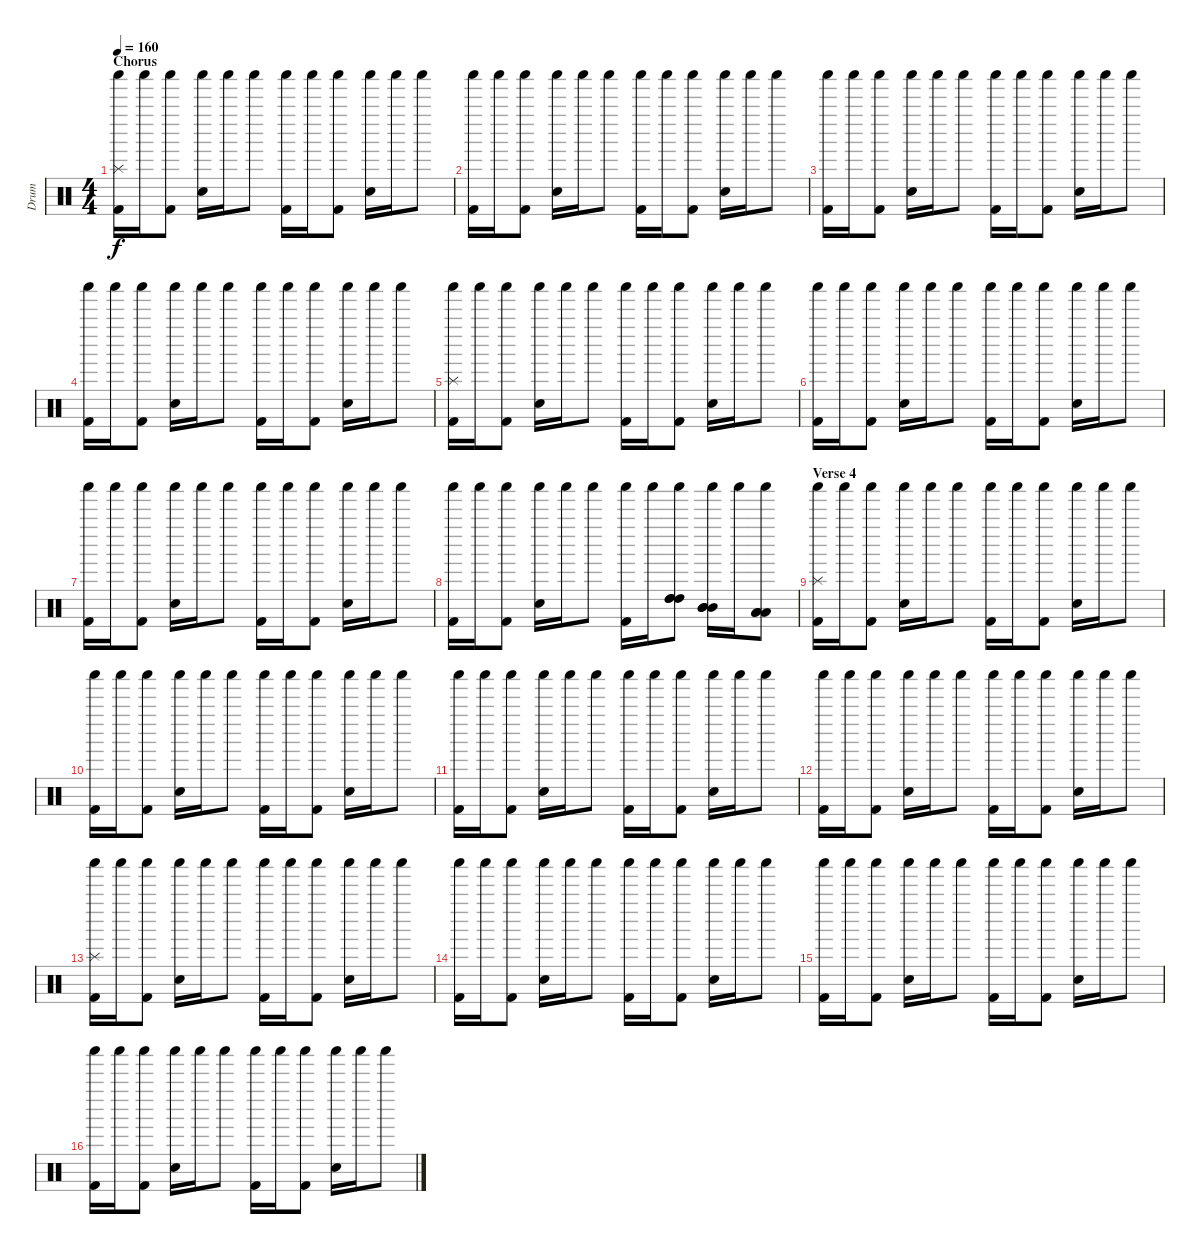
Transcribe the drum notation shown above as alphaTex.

\track ("Drum" "Drum") {instrument percussion}
\staff {score}
\articulation defaults
\ts (4 4)
\section ("" "Chorus")
\tempo 160
\clef neutral
\ks c
("Splash (hit)" "Shaker (hit)" "Kick (hit) 2").16{dy f} "Shaker (hit)".16 ("Shaker (hit)" "Kick (hit) 2").8 ("Shaker (hit)" "Snare (hit) 2").16 "Shaker (hit)".16 "Shaker (hit)".8 ("Shaker (hit)" "Kick (hit) 2").16 "Shaker (hit)".16 ("Shaker (hit)" "Kick (hit) 2").8 ("Shaker (hit)" "Snare (hit) 2").16 "Shaker (hit)".16 "Shaker (hit)".8 |
("Shaker (hit)" "Kick (hit) 2").16 "Shaker (hit)".16 ("Shaker (hit)" "Kick (hit) 2").8 ("Shaker (hit)" "Snare (hit) 2").16 "Shaker (hit)".16 "Shaker (hit)".8 ("Shaker (hit)" "Kick (hit) 2").16 "Shaker (hit)".16 ("Shaker (hit)" "Kick (hit) 2").8 ("Shaker (hit)" "Snare (hit) 2").16 "Shaker (hit)".16 "Shaker (hit)".8 |
("Shaker (hit)" "Kick (hit) 2").16 "Shaker (hit)".16 ("Shaker (hit)" "Kick (hit) 2").8 ("Shaker (hit)" "Snare (hit) 2").16 "Shaker (hit)".16 "Shaker (hit)".8 ("Shaker (hit)" "Kick (hit) 2").16 "Shaker (hit)".16 ("Shaker (hit)" "Kick (hit) 2").8 ("Shaker (hit)" "Snare (hit) 2").16 "Shaker (hit)".16 "Shaker (hit)".8 |
("Shaker (hit)" "Kick (hit) 2").16 "Shaker (hit)".16 ("Shaker (hit)" "Kick (hit) 2").8 ("Shaker (hit)" "Snare (hit) 2").16 "Shaker (hit)".16 "Shaker (hit)".8 ("Shaker (hit)" "Kick (hit) 2").16 "Shaker (hit)".16 ("Shaker (hit)" "Kick (hit) 2").8 ("Shaker (hit)" "Snare (hit) 2").16 "Shaker (hit)".16 "Shaker (hit)".8 |
("Splash (hit)" "Shaker (hit)" "Kick (hit) 2").16 "Shaker (hit)".16 ("Shaker (hit)" "Kick (hit) 2").8 ("Shaker (hit)" "Snare (hit) 2").16 "Shaker (hit)".16 "Shaker (hit)".8 ("Shaker (hit)" "Kick (hit) 2").16 "Shaker (hit)".16 ("Shaker (hit)" "Kick (hit) 2").8 ("Shaker (hit)" "Snare (hit) 2").16 "Shaker (hit)".16 "Shaker (hit)".8 |
("Shaker (hit)" "Kick (hit) 2").16 "Shaker (hit)".16 ("Shaker (hit)" "Kick (hit) 2").8 ("Shaker (hit)" "Snare (hit) 2").16 "Shaker (hit)".16 "Shaker (hit)".8 ("Shaker (hit)" "Kick (hit) 2").16 "Shaker (hit)".16 ("Shaker (hit)" "Kick (hit) 2").8 ("Shaker (hit)" "Snare (hit) 2").16 "Shaker (hit)".16 "Shaker (hit)".8 |
("Shaker (hit)" "Kick (hit) 2").16 "Shaker (hit)".16 ("Shaker (hit)" "Kick (hit) 2").8 ("Shaker (hit)" "Snare (hit) 2").16 "Shaker (hit)".16 "Shaker (hit)".8 ("Shaker (hit)" "Kick (hit) 2").16 "Shaker (hit)".16 ("Shaker (hit)" "Kick (hit) 2").8 ("Shaker (hit)" "Snare (hit) 2").16 "Shaker (hit)".16 "Shaker (hit)".8 |
("Shaker (hit)" "Kick (hit) 2").16 "Shaker (hit)".16 ("Shaker (hit)" "Kick (hit) 2").8 ("Shaker (hit)" "Snare (hit) 2").16 "Shaker (hit)".16 "Shaker (hit)".8 ("Shaker (hit)" "Kick (hit) 2").16 "Shaker (hit)".16 ("High Tom (hit)" "High Tom (hit)" "High Tom (hit)" "Shaker (hit)").8 ("Mid Tom (hit)" "Mid Tom (hit)" "Mid Tom (hit)" "Shaker (hit)").16 "Shaker (hit)".16 ("Low Tom (hit)" "Low Tom (hit)" "Low Tom (hit)" "Shaker (hit)").8 |
\section ("" "Verse 4")
("Splash (hit)" "Shaker (hit)" "Kick (hit) 2").16 "Shaker (hit)".16 ("Shaker (hit)" "Kick (hit) 2").8 ("Shaker (hit)" "Snare (hit) 2").16 "Shaker (hit)".16 "Shaker (hit)".8 ("Shaker (hit)" "Kick (hit) 2").16 "Shaker (hit)".16 ("Shaker (hit)" "Kick (hit) 2").8 ("Shaker (hit)" "Snare (hit) 2").16 "Shaker (hit)".16 "Shaker (hit)".8 |
("Shaker (hit)" "Kick (hit) 2").16 "Shaker (hit)".16 ("Shaker (hit)" "Kick (hit) 2").8 ("Shaker (hit)" "Snare (hit) 2").16 "Shaker (hit)".16 "Shaker (hit)".8 ("Shaker (hit)" "Kick (hit) 2").16 "Shaker (hit)".16 ("Shaker (hit)" "Kick (hit) 2").8 ("Shaker (hit)" "Snare (hit) 2").16 "Shaker (hit)".16 "Shaker (hit)".8 |
("Shaker (hit)" "Kick (hit) 2").16 "Shaker (hit)".16 ("Shaker (hit)" "Kick (hit) 2").8 ("Shaker (hit)" "Snare (hit) 2").16 "Shaker (hit)".16 "Shaker (hit)".8 ("Shaker (hit)" "Kick (hit) 2").16 "Shaker (hit)".16 ("Shaker (hit)" "Kick (hit) 2").8 ("Shaker (hit)" "Snare (hit) 2").16 "Shaker (hit)".16 "Shaker (hit)".8 |
("Shaker (hit)" "Kick (hit) 2").16 "Shaker (hit)".16 ("Shaker (hit)" "Kick (hit) 2").8 ("Shaker (hit)" "Snare (hit) 2").16 "Shaker (hit)".16 "Shaker (hit)".8 ("Shaker (hit)" "Kick (hit) 2").16 "Shaker (hit)".16 ("Shaker (hit)" "Kick (hit) 2").8 ("Shaker (hit)" "Snare (hit) 2").16 "Shaker (hit)".16 "Shaker (hit)".8 |
("Splash (hit)" "Shaker (hit)" "Kick (hit) 2").16 "Shaker (hit)".16 ("Shaker (hit)" "Kick (hit) 2").8 ("Shaker (hit)" "Snare (hit) 2").16 "Shaker (hit)".16 "Shaker (hit)".8 ("Shaker (hit)" "Kick (hit) 2").16 "Shaker (hit)".16 ("Shaker (hit)" "Kick (hit) 2").8 ("Shaker (hit)" "Snare (hit) 2").16 "Shaker (hit)".16 "Shaker (hit)".8 |
("Shaker (hit)" "Kick (hit) 2").16 "Shaker (hit)".16 ("Shaker (hit)" "Kick (hit) 2").8 ("Shaker (hit)" "Snare (hit) 2").16 "Shaker (hit)".16 "Shaker (hit)".8 ("Shaker (hit)" "Kick (hit) 2").16 "Shaker (hit)".16 ("Shaker (hit)" "Kick (hit) 2").8 ("Shaker (hit)" "Snare (hit) 2").16 "Shaker (hit)".16 "Shaker (hit)".8 |
("Shaker (hit)" "Kick (hit) 2").16 "Shaker (hit)".16 ("Shaker (hit)" "Kick (hit) 2").8 ("Shaker (hit)" "Snare (hit) 2").16 "Shaker (hit)".16 "Shaker (hit)".8 ("Shaker (hit)" "Kick (hit) 2").16 "Shaker (hit)".16 ("Shaker (hit)" "Kick (hit) 2").8 ("Shaker (hit)" "Snare (hit) 2").16 "Shaker (hit)".16 "Shaker (hit)".8 |
("Shaker (hit)" "Kick (hit) 2").16 "Shaker (hit)".16 ("Shaker (hit)" "Kick (hit) 2").8 ("Shaker (hit)" "Snare (hit) 2").16 "Shaker (hit)".16 "Shaker (hit)".8 ("Shaker (hit)" "Kick (hit) 2").16 "Shaker (hit)".16 ("Shaker (hit)" "Kick (hit) 2").8 ("Shaker (hit)" "Snare (hit) 2").16 "Shaker (hit)".16 "Shaker (hit)".8
